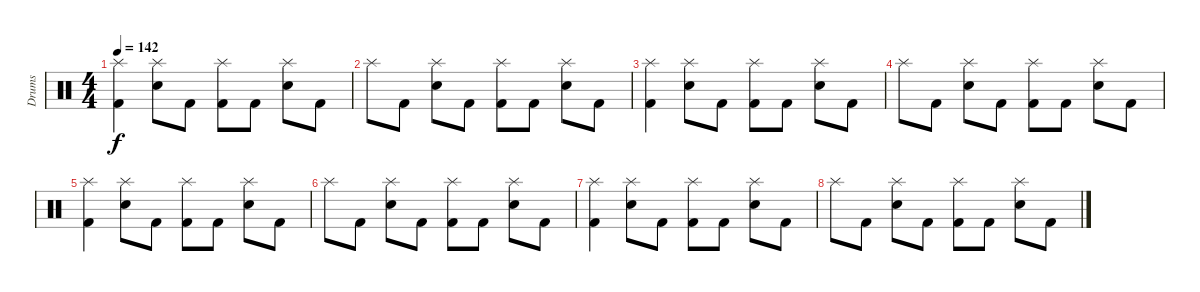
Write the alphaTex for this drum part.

\track ("Drums" "Drums") {instrument percussion}
\staff {score}
\articulation defaults
\ts (4 4)
\tempo 142
\clef neutral
\ks c
("Splash (hit)" "Kick (hit) 2").4{dy f volume 10} ("Splash (hit)" "Electric Snare (hit)").8 "Kick (hit) 2".8 ("Splash (hit)" "Kick (hit) 2").8 "Kick (hit) 2".8 ("Splash (hit)" "Electric Snare (hit)").8 "Kick (hit) 2".8 |
"Splash (hit)".8 "Kick (hit) 2".8 ("Splash (hit)" "Electric Snare (hit)").8 "Kick (hit) 2".8 ("Splash (hit)" "Kick (hit) 2").8 "Kick (hit) 2".8 ("Splash (hit)" "Electric Snare (hit)").8 "Kick (hit) 2".8 |
("Splash (hit)" "Kick (hit) 2").4{volume 6} ("Splash (hit)" "Electric Snare (hit)").8 "Kick (hit) 2".8 ("Splash (hit)" "Kick (hit) 2").8 "Kick (hit) 2".8 ("Splash (hit)" "Electric Snare (hit)").8 "Kick (hit) 2".8 |
"Splash (hit)".8 "Kick (hit) 2".8 ("Splash (hit)" "Electric Snare (hit)").8 "Kick (hit) 2".8 ("Splash (hit)" "Kick (hit) 2").8 "Kick (hit) 2".8 ("Splash (hit)" "Electric Snare (hit)").8 "Kick (hit) 2".8 |
("Splash (hit)" "Kick (hit) 2").4{volume 3} ("Splash (hit)" "Electric Snare (hit)").8 "Kick (hit) 2".8 ("Splash (hit)" "Kick (hit) 2").8 "Kick (hit) 2".8 ("Splash (hit)" "Electric Snare (hit)").8 "Kick (hit) 2".8 |
"Splash (hit)".8 "Kick (hit) 2".8 ("Splash (hit)" "Electric Snare (hit)").8 "Kick (hit) 2".8 ("Splash (hit)" "Kick (hit) 2").8 "Kick (hit) 2".8 ("Splash (hit)" "Electric Snare (hit)").8 "Kick (hit) 2".8 |
("Splash (hit)" "Kick (hit) 2").4{volume 0} ("Splash (hit)" "Electric Snare (hit)").8 "Kick (hit) 2".8 ("Splash (hit)" "Kick (hit) 2").8 "Kick (hit) 2".8 ("Splash (hit)" "Electric Snare (hit)").8 "Kick (hit) 2".8 |
"Splash (hit)".8 "Kick (hit) 2".8 ("Splash (hit)" "Electric Snare (hit)").8 "Kick (hit) 2".8 ("Splash (hit)" "Kick (hit) 2").8 "Kick (hit) 2".8 ("Splash (hit)" "Electric Snare (hit)").8 "Kick (hit) 2".8
